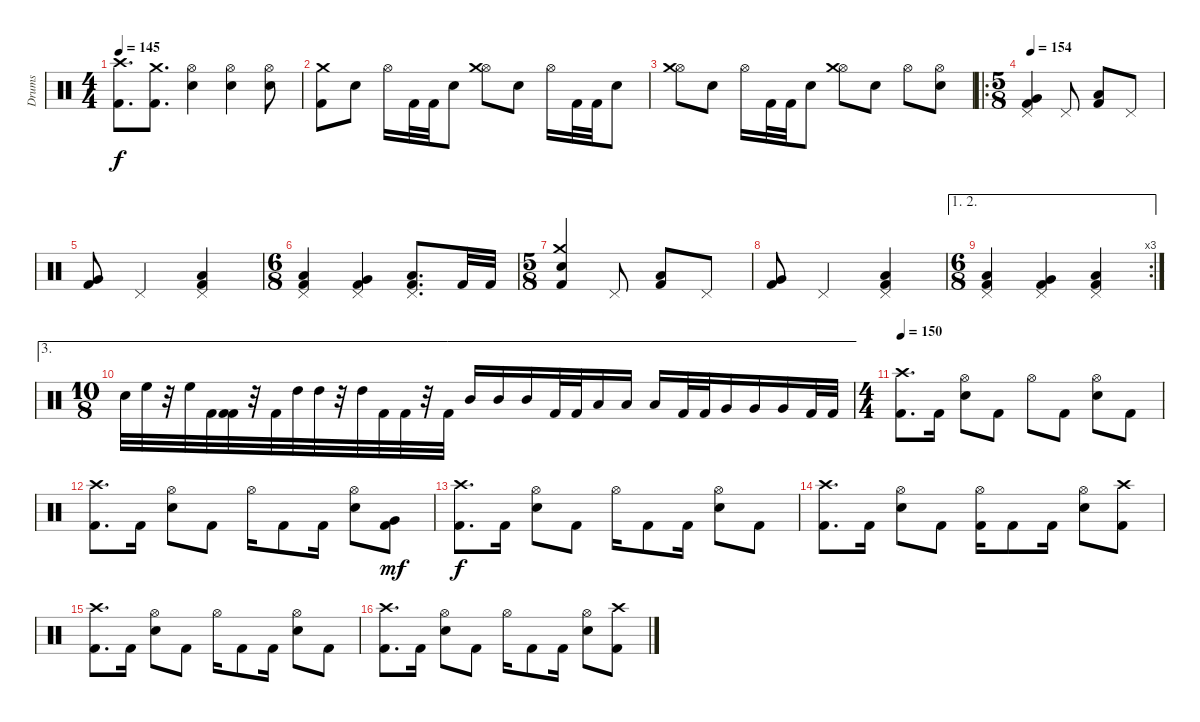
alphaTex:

\track ("Drums" "Drums") {instrument percussion}
\staff {score}
\articulation defaults
\ts (4 4)
\tempo 145
\clef neutral
\ks c
("Kick (hit) 2" "Crash high (hit)").8{d dy f} ("Kick (hit) 2" "Crash medium (hit)").8{d} ("Hi-Hat (open)" "Electric Snare (hit)").4 ("Hi-Hat (open)" "Electric Snare (hit)").4 ("Hi-Hat (open)" "Electric Snare (hit)").8 |
("Kick (hit) 2" "Crash medium (hit)").8 "Electric Snare (hit)".8 "Hi-Hat (open)".16 "Kick (hit) 2".32 "Kick (hit) 2".32 "Electric Snare (hit)".8 ("Hi-Hat (open)" "Crash medium (hit)").8 "Electric Snare (hit)".8 "Hi-Hat (open)".16 "Kick (hit) 2".32 "Kick (hit) 2".32 "Electric Snare (hit)".8 |
("Hi-Hat (open)" "Crash medium (hit)").8 "Electric Snare (hit)".8 "Hi-Hat (open)".16 "Kick (hit) 2".32 "Kick (hit) 2".32 "Electric Snare (hit)".8 ("Hi-Hat (open)" "Crash medium (hit)").8 "Electric Snare (hit)".8 "Hi-Hat (open)".8 ("Electric Snare (hit)" "Hi-Hat (open)").8 |
\ro
\ts (5 8)
\tempo 154
("Kick (hit) 2" "Pedal Hi-Hat (hit)" "Very Low Tom (hit)").4 "Pedal Hi-Hat (hit)".8 ("Low Floor Tom (hit)" "Kick (hit) 2").8 "Pedal Hi-Hat (hit)".8 |
("Very Low Tom (hit)" "Kick (hit) 2").8 "Pedal Hi-Hat (hit)".4 ("Low Floor Tom (hit)" "Kick (hit) 2" "Pedal Hi-Hat (hit)").4 |
\ts (6 8)
("Kick (hit) 2" "Low Tom (hit)" "Pedal Hi-Hat (hit)").4 ("Very Low Tom (hit)" "Kick (hit) 2" "Pedal Hi-Hat (hit)").4 ("Kick (hit) 2" "Low Floor Tom (hit)" "Pedal Hi-Hat (hit)").8{d} "Kick (hit) 2".32 "Kick (hit) 2".32 |
\ts (5 8)
("Kick (hit) 2" "Electric Snare (hit)" "Crash medium (hit)").4 "Pedal Hi-Hat (hit)".8 ("Low Floor Tom (hit)" "Kick (hit) 2").8 "Pedal Hi-Hat (hit)".8 |
("Very Low Tom (hit)" "Kick (hit) 2").8 "Pedal Hi-Hat (hit)".4 ("Low Floor Tom (hit)" "Kick (hit) 2" "Pedal Hi-Hat (hit)").4 |
\ae (1 2)
\rc 3
\ts (6 8)
("Kick (hit) 2" "Low Tom (hit)" "Pedal Hi-Hat (hit)").4 ("Very Low Tom (hit)" "Kick (hit) 2" "Pedal Hi-Hat (hit)").4 ("Pedal Hi-Hat (hit)" "Low Floor Tom (hit)" "Kick (hit) 2").4 |
\ae 3
\ts (10 8)
"Electric Snare (hit)".32 "High Floor Tom (hit)".32 r.32 "High Floor Tom (hit)".32 "Kick (hit) 2".32 ("Kick (hit) 2" "Kick (hit) 2").32 r.32 "Kick (hit) 2".32 "High Tom (hit)".32 "High Tom (hit)".32 r.32 "High Tom (hit)".32 "Kick (hit) 2".32 "Kick (hit) 2".32 r.32 "Kick (hit) 2".32 "Mid Tom (hit)".16 "Mid Tom (hit)".16 "Mid Tom (hit)".16 "Kick (hit) 2".32 "Kick (hit) 2".32 "Low Tom (hit)".16 "Low Tom (hit)".16 "Low Tom (hit)".16 "Kick (hit) 2".32 "Kick (hit) 2".32 "Very Low Tom (hit)".16 "Very Low Tom (hit)".16 "Very Low Tom (hit)".16 "Kick (hit) 2".32 "Kick (hit) 2".32 |
\ts (4 4)
\tempo 150
("Crash high (hit)" "Kick (hit) 2").8{d} "Kick (hit) 2".16 ("Electric Snare (hit)" "Hi-Hat (open)").8 "Kick (hit) 2".8 "Hi-Hat (open)".8 "Kick (hit) 2".8 ("Electric Snare (hit)" "Hi-Hat (open)").8 "Kick (hit) 2".8 |
("Kick (hit) 2" "Crash high (hit)").8{d} "Kick (hit) 2".16 ("Electric Snare (hit)" "Hi-Hat (open)").8 "Kick (hit) 2".8 "Hi-Hat (open)".16 "Kick (hit) 2".8 "Kick (hit) 2".16 ("Electric Snare (hit)" "Hi-Hat (open)").8 ("Kick (hit) 2" "Very Low Tom (hit)").8{dy mf} |
("Crash high (hit)" "Kick (hit) 2").8{d dy f} "Kick (hit) 2".16 ("Electric Snare (hit)" "Hi-Hat (open)").8 "Kick (hit) 2".8 "Hi-Hat (open)".16 "Kick (hit) 2".8 "Kick (hit) 2".16 ("Electric Snare (hit)" "Hi-Hat (open)").8 "Kick (hit) 2".8 |
("Kick (hit) 2" "Crash high (hit)").8{d} "Kick (hit) 2".16 ("Electric Snare (hit)" "Hi-Hat (open)").8 "Kick (hit) 2".8 ("Hi-Hat (open)" "Kick (hit) 2").16 "Kick (hit) 2".8 "Kick (hit) 2".16 ("Electric Snare (hit)" "Hi-Hat (open)").8 ("Kick (hit) 2" "Crash high (hit)").8 |
("Kick (hit) 2" "Crash high (hit)").8{d} "Kick (hit) 2".16 ("Electric Snare (hit)" "Hi-Hat (open)").8 "Kick (hit) 2".8 "Hi-Hat (open)".16 "Kick (hit) 2".8 "Kick (hit) 2".16 ("Electric Snare (hit)" "Hi-Hat (open)").8 "Kick (hit) 2".8 |
("Kick (hit) 2" "Crash high (hit)").8{d} "Kick (hit) 2".16 ("Electric Snare (hit)" "Hi-Hat (open)").8 "Kick (hit) 2".8 "Hi-Hat (open)".16 "Kick (hit) 2".8 "Kick (hit) 2".16 ("Electric Snare (hit)" "Hi-Hat (open)").8 ("Kick (hit) 2" "Crash high (hit)").8
